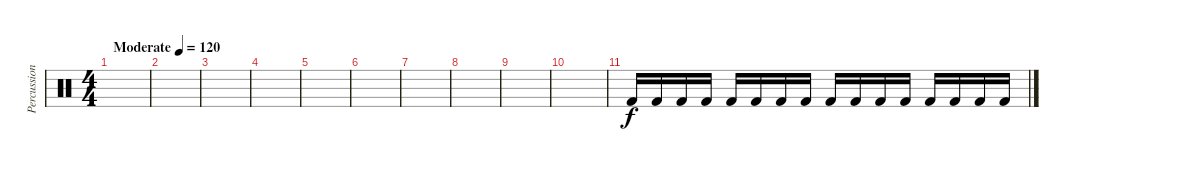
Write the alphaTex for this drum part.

\track ("Percussion" "Percussion") {instrument percussion}
\staff {score}
\articulation defaults
\ts (4 4)
\tempo (120 "Moderate")
\clef neutral
\ks c
|
|
|
|
|
|
|
|
|
|
"Kick (hit) 2".16 "Kick (hit) 2".16 "Kick (hit) 2".16 "Kick (hit) 2".16 "Kick (hit) 2".16 "Kick (hit) 2".16 "Kick (hit) 2".16 "Kick (hit) 2".16 "Kick (hit) 2".16 "Kick (hit) 2".16 "Kick (hit) 2".16 "Kick (hit) 2".16 "Kick (hit) 2".16 "Kick (hit) 2".16 "Kick (hit) 2".16 "Kick (hit) 2".16
